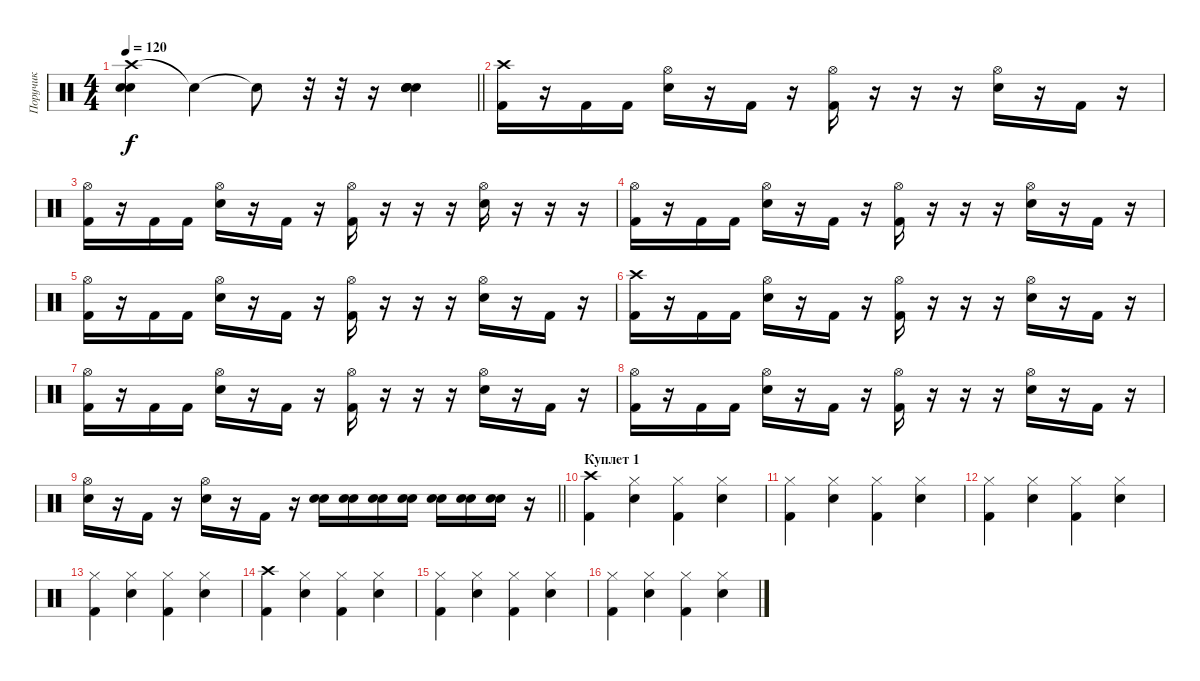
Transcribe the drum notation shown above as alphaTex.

\track ("Поручик" "Поручик") {instrument percussion}
\staff {score}
\articulation defaults
\ts (4 4)
\tempo 120
\clef neutral
\barLineRight lightlight
\ks c
("Crash high (hit)" "Snare (hit) 2" "Snare (hit) 2").4{dy f} "Snare (hit)"{t}.4 "Snare (hit)"{t}.8 r.32 r.32 r.16 ("Snare (hit) 2" "Snare (hit) 2" "Snare (hit) 2" "Snare (hit) 2").4 |
("Crash high (hit)" "Kick (hit) 2").16 r.16 "Kick (hit) 2".16 "Kick (hit) 2".16 ("Hi-Hat (open)" "Snare (hit) 2").16 r.16 "Kick (hit) 2".16 r.16 ("Hi-Hat (open)" "Kick (hit) 2").16 r.16 r.16 r.16 ("Hi-Hat (open)" "Snare (hit) 2").16 r.16 "Kick (hit) 2".16 r.16 |
("Hi-Hat (open)" "Kick (hit) 2").16 r.16 "Kick (hit) 2".16 "Kick (hit) 2".16 ("Hi-Hat (open)" "Snare (hit) 2").16 r.16 "Kick (hit) 2".16 r.16 ("Hi-Hat (open)" "Kick (hit) 2").16 r.16 r.16 r.16 ("Hi-Hat (open)" "Snare (hit) 2").16 r.16 r.16 r.16 |
("Hi-Hat (open)" "Kick (hit) 2").16 r.16 "Kick (hit) 2".16 "Kick (hit) 2".16 ("Hi-Hat (open)" "Snare (hit) 2").16 r.16 "Kick (hit) 2".16 r.16 ("Hi-Hat (open)" "Kick (hit) 2").16 r.16 r.16 r.16 ("Hi-Hat (open)" "Snare (hit) 2").16 r.16 "Kick (hit) 2".16 r.16 |
("Hi-Hat (open)" "Kick (hit) 2").16 r.16 "Kick (hit) 2".16 "Kick (hit) 2".16 ("Hi-Hat (open)" "Snare (hit) 2").16 r.16 "Kick (hit) 2".16 r.16 ("Hi-Hat (open)" "Kick (hit) 2").16 r.16 r.16 r.16 ("Hi-Hat (open)" "Snare (hit) 2").16 r.16 "Kick (hit) 2".16 r.16 |
("Crash high (hit)" "Kick (hit) 2").16 r.16 "Kick (hit) 2".16 "Kick (hit) 2".16 ("Hi-Hat (open)" "Snare (hit) 2").16 r.16 "Kick (hit) 2".16 r.16 ("Hi-Hat (open)" "Kick (hit) 2").16 r.16 r.16 r.16 ("Hi-Hat (open)" "Snare (hit) 2").16 r.16 "Kick (hit) 2".16 r.16 |
("Hi-Hat (open)" "Kick (hit) 2").16 r.16 "Kick (hit) 2".16 "Kick (hit) 2".16 ("Hi-Hat (open)" "Snare (hit) 2").16 r.16 "Kick (hit) 2".16 r.16 ("Hi-Hat (open)" "Kick (hit) 2").16 r.16 r.16 r.16 ("Hi-Hat (open)" "Snare (hit) 2").16 r.16 "Kick (hit) 2".16 r.16 |
("Hi-Hat (open)" "Kick (hit) 2").16 r.16 "Kick (hit) 2".16 "Kick (hit) 2".16 ("Hi-Hat (open)" "Snare (hit) 2").16 r.16 "Kick (hit) 2".16 r.16 ("Hi-Hat (open)" "Kick (hit) 2").16 r.16 r.16 r.16 ("Hi-Hat (open)" "Snare (hit) 2").16 r.16 "Kick (hit) 2".16 r.16 |
\barLineRight lightlight
("Hi-Hat (open)" "Snare (hit) 2").16 r.16 "Kick (hit) 2".16 r.16 ("Hi-Hat (open)" "Snare (hit) 2").16 r.16 "Kick (hit) 2".16 r.16 ("Snare (hit) 2" "Snare (hit) 2").16 ("Snare (hit) 2" "Snare (hit) 2").16 ("Snare (hit) 2" "Snare (hit) 2").16 ("Snare (hit) 2" "Snare (hit) 2").16 ("Snare (hit) 2" "Snare (hit) 2").16 ("Snare (hit) 2" "Snare (hit) 2").16 ("Snare (hit) 2" "Snare (hit) 2").16 r.16 |
\section ("" "Куплет 1")
("Crash high (hit)" "Kick (hit) 2").4 ("Hi-Hat (closed)" "Snare (hit) 2").4 ("Hi-Hat (closed)" "Kick (hit) 2").4 ("Hi-Hat (closed)" "Snare (hit) 2").4 |
("Hi-Hat (closed)" "Kick (hit) 2").4 ("Hi-Hat (closed)" "Snare (hit) 2").4 ("Hi-Hat (closed)" "Kick (hit) 2").4 ("Hi-Hat (closed)" "Snare (hit) 2").4 |
("Hi-Hat (closed)" "Kick (hit) 2").4 ("Hi-Hat (closed)" "Snare (hit) 2").4 ("Hi-Hat (closed)" "Kick (hit) 2").4 ("Hi-Hat (closed)" "Snare (hit) 2").4 |
("Hi-Hat (closed)" "Kick (hit) 2").4 ("Hi-Hat (closed)" "Snare (hit) 2").4 ("Hi-Hat (closed)" "Kick (hit) 2").4 ("Hi-Hat (closed)" "Snare (hit) 2").4 |
("Crash high (hit)" "Kick (hit) 2").4 ("Hi-Hat (closed)" "Snare (hit) 2").4 ("Hi-Hat (closed)" "Kick (hit) 2").4 ("Hi-Hat (closed)" "Snare (hit) 2").4 |
("Hi-Hat (closed)" "Kick (hit) 2").4 ("Hi-Hat (closed)" "Snare (hit) 2").4 ("Hi-Hat (closed)" "Kick (hit) 2").4 ("Hi-Hat (closed)" "Snare (hit) 2").4 |
("Hi-Hat (closed)" "Kick (hit) 2").4 ("Hi-Hat (closed)" "Snare (hit) 2").4 ("Hi-Hat (closed)" "Kick (hit) 2").4 ("Hi-Hat (closed)" "Snare (hit) 2").4
